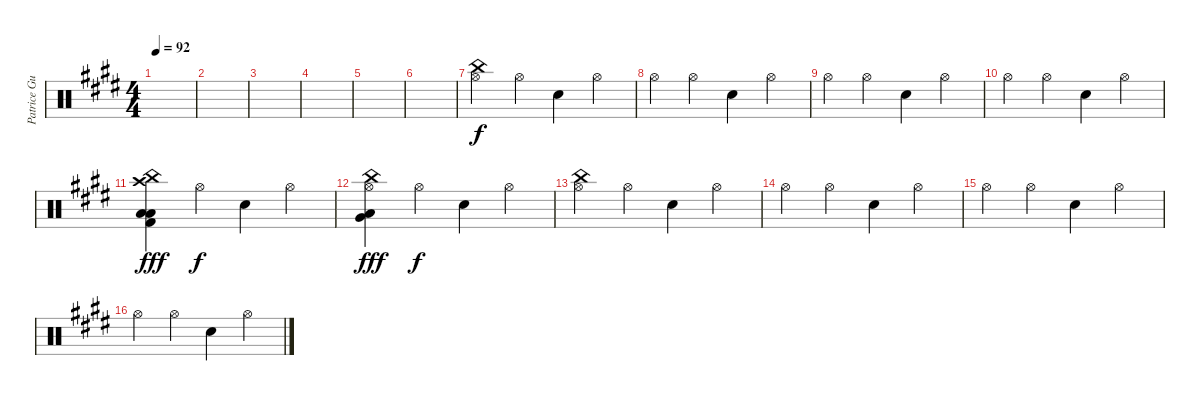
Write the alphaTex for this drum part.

\track ("Patrice Guers" "Patrice Gu") {instrument percussion}
\staff {score}
\articulation defaults
\ts (4 4)
\tempo 92
\clef neutral
\ks c#minor
|
|
|
|
|
|
("Hi-Hat (open)" "China (hit)").4{dy f} "Hi-Hat (open)".4 "Electric Snare (hit)".4 "Hi-Hat (open)".4 |
"Hi-Hat (open)".4 "Hi-Hat (open)".4 "Electric Snare (hit)".4 "Hi-Hat (open)".4 |
"Hi-Hat (open)".4 "Hi-Hat (open)".4 "Electric Snare (hit)".4 "Hi-Hat (open)".4 |
"Hi-Hat (open)".4 "Hi-Hat (open)".4 "Electric Snare (hit)".4 "Hi-Hat (open)".4 |
("Crash high (hit)" "Low Floor Tom (hit)" "China (hit)" "Low Floor Tom (hit)" "Kick (hit) 2").4{dy fff} "Hi-Hat (open)".4{dy f} "Electric Snare (hit)".4 "Hi-Hat (open)".4 |
("Hi-Hat (open)" "Low Floor Tom (hit)" "Very Low Tom (hit)" "China (hit)").4{dy fff} "Hi-Hat (open)".4{dy f} "Electric Snare (hit)".4 "Hi-Hat (open)".4 |
("Hi-Hat (open)" "China (hit)").4 "Hi-Hat (open)".4 "Electric Snare (hit)".4 "Hi-Hat (open)".4 |
"Hi-Hat (open)".4 "Hi-Hat (open)".4 "Electric Snare (hit)".4 "Hi-Hat (open)".4 |
"Hi-Hat (open)".4 "Hi-Hat (open)".4 "Electric Snare (hit)".4 "Hi-Hat (open)".4 |
"Hi-Hat (open)".4 "Hi-Hat (open)".4 "Electric Snare (hit)".4 "Hi-Hat (open)".4
